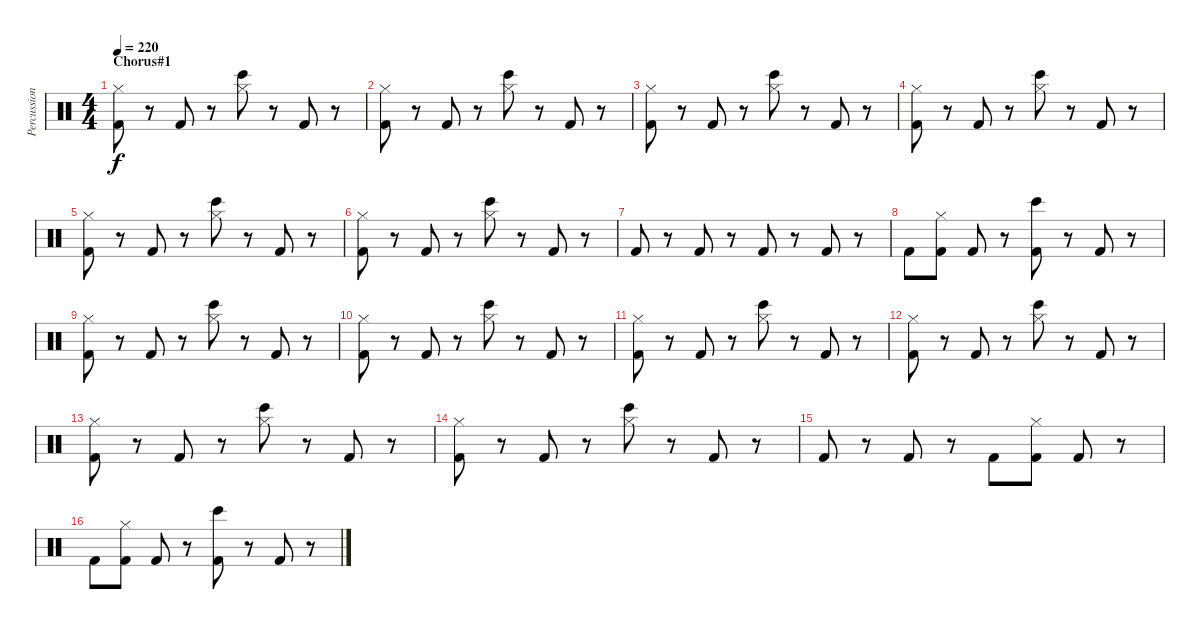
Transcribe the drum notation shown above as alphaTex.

\track ("Percussion" "Percussion") {instrument percussion}
\staff {score}
\articulation defaults
\ts (4 4)
\section ("" "Chorus#1")
\tempo 220
\clef neutral
\ks c
("Kick (hit) 2" "Hi-Hat (closed)").8{dy f} r.8 "Kick (hit) 2".8 r.8 ("Bongo High (hit)" "Hi-Hat (closed)").8 r.8 "Kick (hit) 2".8 r.8 |
("Kick (hit) 2" "Hi-Hat (closed)").8 r.8 "Kick (hit) 2".8 r.8 ("Bongo High (hit)" "Hi-Hat (closed)").8 r.8 "Kick (hit) 2".8 r.8 |
("Kick (hit) 2" "Hi-Hat (closed)").8 r.8 "Kick (hit) 2".8 r.8 ("Bongo High (hit)" "Hi-Hat (closed)").8 r.8 "Kick (hit) 2".8 r.8 |
("Kick (hit) 2" "Hi-Hat (closed)").8 r.8 "Kick (hit) 2".8 r.8 ("Bongo High (hit)" "Hi-Hat (closed)").8 r.8 "Kick (hit) 2".8 r.8 |
("Kick (hit) 2" "Hi-Hat (closed)").8 r.8 "Kick (hit) 2".8 r.8 ("Bongo High (hit)" "Hi-Hat (closed)").8 r.8 "Kick (hit) 2".8 r.8 |
("Kick (hit) 2" "Hi-Hat (closed)").8 r.8 "Kick (hit) 2".8 r.8 ("Bongo High (hit)" "Hi-Hat (closed)").8 r.8 "Kick (hit) 2".8 r.8 |
"Kick (hit) 2".8 r.8 "Kick (hit) 2".8 r.8 "Kick (hit) 2".8 r.8 "Kick (hit) 2".8 r.8 |
"Kick (hit) 2".8 ("Kick (hit) 2" "Hi-Hat (closed)").8 "Kick (hit) 2".8 r.8 ("Bongo High (hit)" "Kick (hit) 2").8 r.8 "Kick (hit) 2".8 r.8 |
("Kick (hit) 2" "Hi-Hat (closed)").8 r.8 "Kick (hit) 2".8 r.8 ("Bongo High (hit)" "Hi-Hat (closed)").8 r.8 "Kick (hit) 2".8 r.8 |
("Kick (hit) 2" "Hi-Hat (closed)").8 r.8 "Kick (hit) 2".8 r.8 ("Bongo High (hit)" "Hi-Hat (closed)").8 r.8 "Kick (hit) 2".8 r.8 |
("Kick (hit) 2" "Hi-Hat (closed)").8 r.8 "Kick (hit) 2".8 r.8 ("Bongo High (hit)" "Hi-Hat (closed)").8 r.8 "Kick (hit) 2".8 r.8 |
("Kick (hit) 2" "Hi-Hat (closed)").8 r.8 "Kick (hit) 2".8 r.8 ("Bongo High (hit)" "Hi-Hat (closed)").8 r.8 "Kick (hit) 2".8 r.8 |
("Kick (hit) 2" "Hi-Hat (closed)").8 r.8 "Kick (hit) 2".8 r.8 ("Bongo High (hit)" "Hi-Hat (closed)").8 r.8 "Kick (hit) 2".8 r.8 |
("Kick (hit) 2" "Hi-Hat (closed)").8 r.8 "Kick (hit) 2".8 r.8 ("Bongo High (hit)" "Hi-Hat (closed)").8 r.8 "Kick (hit) 2".8 r.8 |
"Kick (hit) 2".8 r.8 "Kick (hit) 2".8 r.8 "Kick (hit) 2".8 ("Kick (hit) 2" "Hi-Hat (closed)").8 "Kick (hit) 2".8 r.8 |
"Kick (hit) 2".8 ("Kick (hit) 2" "Hi-Hat (closed)").8 "Kick (hit) 2".8 r.8 ("Bongo High (hit)" "Kick (hit) 2").8 r.8 "Kick (hit) 2".8 r.8
